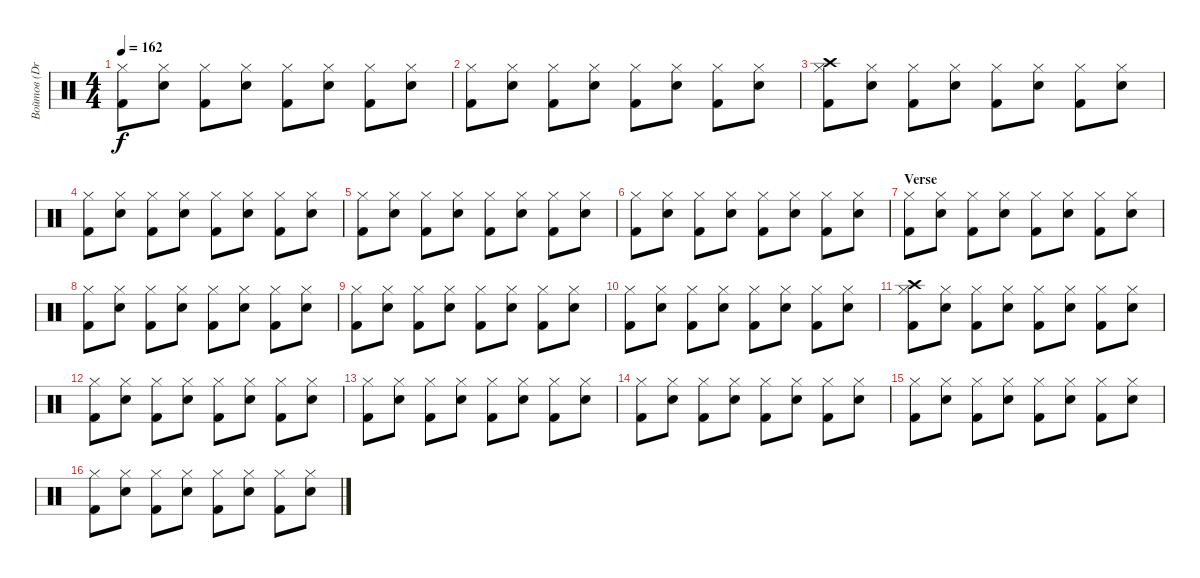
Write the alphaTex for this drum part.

\track ("Войтов (Drums)" "Войтов (Dr") {instrument percussion}
\staff {score}
\articulation defaults
\ts (4 4)
\tempo 162
\clef neutral
\ks c
("Hi-Hat (closed)" "Kick (hit) 2").8{dy f} ("Hi-Hat (closed)" "Electric Snare (hit)").8 ("Hi-Hat (closed)" "Kick (hit) 2").8 ("Hi-Hat (closed)" "Electric Snare (hit)").8 ("Hi-Hat (closed)" "Kick (hit) 2").8 ("Hi-Hat (closed)" "Electric Snare (hit)").8 ("Hi-Hat (closed)" "Kick (hit) 2").8 ("Hi-Hat (closed)" "Electric Snare (hit)").8 |
("Hi-Hat (closed)" "Kick (hit) 2").8 ("Hi-Hat (closed)" "Electric Snare (hit)").8 ("Hi-Hat (closed)" "Kick (hit) 2").8 ("Hi-Hat (closed)" "Electric Snare (hit)").8 ("Hi-Hat (closed)" "Kick (hit) 2").8 ("Hi-Hat (closed)" "Electric Snare (hit)").8 ("Hi-Hat (closed)" "Kick (hit) 2").8 ("Hi-Hat (closed)" "Electric Snare (hit)").8 |
("Hi-Hat (closed)" "Kick (hit) 2" "Crash high (hit)").8 ("Hi-Hat (closed)" "Electric Snare (hit)").8 ("Hi-Hat (closed)" "Kick (hit) 2").8 ("Hi-Hat (closed)" "Electric Snare (hit)").8 ("Hi-Hat (closed)" "Kick (hit) 2").8 ("Hi-Hat (closed)" "Electric Snare (hit)").8 ("Hi-Hat (closed)" "Kick (hit) 2").8 ("Hi-Hat (closed)" "Electric Snare (hit)").8 |
("Hi-Hat (closed)" "Kick (hit) 2").8 ("Hi-Hat (closed)" "Electric Snare (hit)").8 ("Hi-Hat (closed)" "Kick (hit) 2").8 ("Hi-Hat (closed)" "Electric Snare (hit)").8 ("Hi-Hat (closed)" "Kick (hit) 2").8 ("Hi-Hat (closed)" "Electric Snare (hit)").8 ("Hi-Hat (closed)" "Kick (hit) 2").8 ("Hi-Hat (closed)" "Electric Snare (hit)").8 |
("Hi-Hat (closed)" "Kick (hit) 2").8 ("Hi-Hat (closed)" "Electric Snare (hit)").8 ("Hi-Hat (closed)" "Kick (hit) 2").8 ("Hi-Hat (closed)" "Electric Snare (hit)").8 ("Hi-Hat (closed)" "Kick (hit) 2").8 ("Hi-Hat (closed)" "Electric Snare (hit)").8 ("Hi-Hat (closed)" "Kick (hit) 2").8 ("Hi-Hat (closed)" "Electric Snare (hit)").8 |
("Hi-Hat (closed)" "Kick (hit) 2").8 ("Hi-Hat (closed)" "Electric Snare (hit)").8 ("Hi-Hat (closed)" "Kick (hit) 2").8 ("Hi-Hat (closed)" "Electric Snare (hit)").8 ("Hi-Hat (closed)" "Kick (hit) 2").8 ("Hi-Hat (closed)" "Electric Snare (hit)").8 ("Hi-Hat (closed)" "Kick (hit) 2").8 ("Hi-Hat (closed)" "Electric Snare (hit)").8 |
\section ("" "Verse")
("Hi-Hat (closed)" "Kick (hit) 2").8 ("Hi-Hat (closed)" "Electric Snare (hit)").8 ("Hi-Hat (closed)" "Kick (hit) 2").8 ("Hi-Hat (closed)" "Electric Snare (hit)").8 ("Hi-Hat (closed)" "Kick (hit) 2").8 ("Hi-Hat (closed)" "Electric Snare (hit)").8 ("Hi-Hat (closed)" "Kick (hit) 2").8 ("Hi-Hat (closed)" "Electric Snare (hit)").8 |
("Hi-Hat (closed)" "Kick (hit) 2").8 ("Hi-Hat (closed)" "Electric Snare (hit)").8 ("Hi-Hat (closed)" "Kick (hit) 2").8 ("Hi-Hat (closed)" "Electric Snare (hit)").8 ("Hi-Hat (closed)" "Kick (hit) 2").8 ("Hi-Hat (closed)" "Electric Snare (hit)").8 ("Hi-Hat (closed)" "Kick (hit) 2").8 ("Hi-Hat (closed)" "Electric Snare (hit)").8 |
("Hi-Hat (closed)" "Kick (hit) 2").8 ("Hi-Hat (closed)" "Electric Snare (hit)").8 ("Hi-Hat (closed)" "Kick (hit) 2").8 ("Hi-Hat (closed)" "Electric Snare (hit)").8 ("Hi-Hat (closed)" "Kick (hit) 2").8 ("Hi-Hat (closed)" "Electric Snare (hit)").8 ("Hi-Hat (closed)" "Kick (hit) 2").8 ("Hi-Hat (closed)" "Electric Snare (hit)").8 |
("Hi-Hat (closed)" "Kick (hit) 2").8 ("Hi-Hat (closed)" "Electric Snare (hit)").8 ("Hi-Hat (closed)" "Kick (hit) 2").8 ("Hi-Hat (closed)" "Electric Snare (hit)").8 ("Hi-Hat (closed)" "Kick (hit) 2").8 ("Hi-Hat (closed)" "Electric Snare (hit)").8 ("Hi-Hat (closed)" "Kick (hit) 2").8 ("Hi-Hat (closed)" "Electric Snare (hit)").8 |
("Hi-Hat (closed)" "Kick (hit) 2" "Crash high (hit)").8 ("Hi-Hat (closed)" "Electric Snare (hit)").8 ("Hi-Hat (closed)" "Kick (hit) 2").8 ("Hi-Hat (closed)" "Electric Snare (hit)").8 ("Hi-Hat (closed)" "Kick (hit) 2").8 ("Hi-Hat (closed)" "Electric Snare (hit)").8 ("Hi-Hat (closed)" "Kick (hit) 2").8 ("Hi-Hat (closed)" "Electric Snare (hit)").8 |
("Hi-Hat (closed)" "Kick (hit) 2").8 ("Hi-Hat (closed)" "Electric Snare (hit)").8 ("Hi-Hat (closed)" "Kick (hit) 2").8 ("Hi-Hat (closed)" "Electric Snare (hit)").8 ("Hi-Hat (closed)" "Kick (hit) 2").8 ("Hi-Hat (closed)" "Electric Snare (hit)").8 ("Hi-Hat (closed)" "Kick (hit) 2").8 ("Hi-Hat (closed)" "Electric Snare (hit)").8 |
("Hi-Hat (closed)" "Kick (hit) 2").8 ("Hi-Hat (closed)" "Electric Snare (hit)").8 ("Hi-Hat (closed)" "Kick (hit) 2").8 ("Hi-Hat (closed)" "Electric Snare (hit)").8 ("Hi-Hat (closed)" "Kick (hit) 2").8 ("Hi-Hat (closed)" "Electric Snare (hit)").8 ("Hi-Hat (closed)" "Kick (hit) 2").8 ("Hi-Hat (closed)" "Electric Snare (hit)").8 |
("Hi-Hat (closed)" "Kick (hit) 2").8 ("Hi-Hat (closed)" "Electric Snare (hit)").8 ("Hi-Hat (closed)" "Kick (hit) 2").8 ("Hi-Hat (closed)" "Electric Snare (hit)").8 ("Hi-Hat (closed)" "Kick (hit) 2").8 ("Hi-Hat (closed)" "Electric Snare (hit)").8 ("Hi-Hat (closed)" "Kick (hit) 2").8 ("Hi-Hat (closed)" "Electric Snare (hit)").8 |
("Hi-Hat (closed)" "Kick (hit) 2").8 ("Hi-Hat (closed)" "Electric Snare (hit)").8 ("Hi-Hat (closed)" "Kick (hit) 2").8 ("Hi-Hat (closed)" "Electric Snare (hit)").8 ("Hi-Hat (closed)" "Kick (hit) 2").8 ("Hi-Hat (closed)" "Electric Snare (hit)").8 ("Hi-Hat (closed)" "Kick (hit) 2").8 ("Hi-Hat (closed)" "Electric Snare (hit)").8 |
("Hi-Hat (closed)" "Kick (hit) 2").8 ("Hi-Hat (closed)" "Electric Snare (hit)").8 ("Hi-Hat (closed)" "Kick (hit) 2").8 ("Hi-Hat (closed)" "Electric Snare (hit)").8 ("Hi-Hat (closed)" "Kick (hit) 2").8 ("Hi-Hat (closed)" "Electric Snare (hit)").8 ("Hi-Hat (closed)" "Kick (hit) 2").8 ("Hi-Hat (closed)" "Electric Snare (hit)").8
